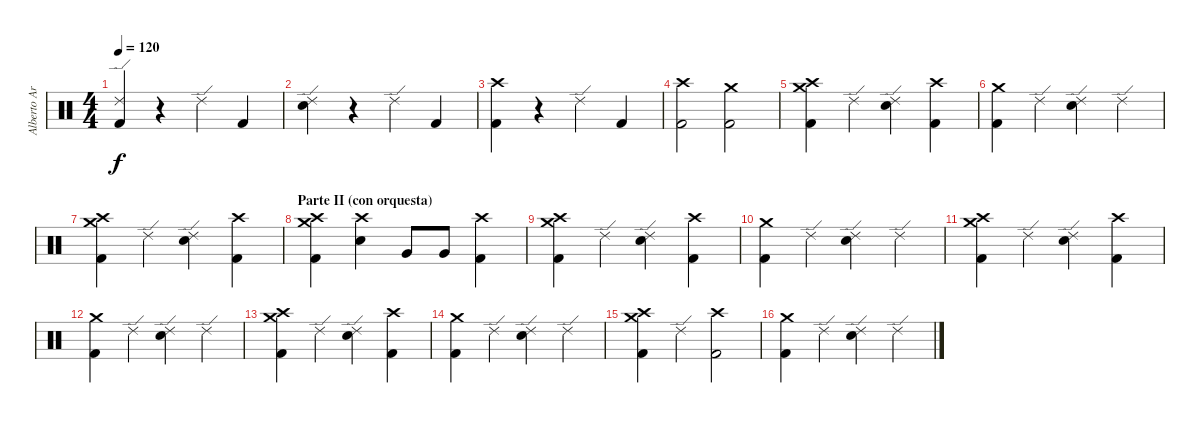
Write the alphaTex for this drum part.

\track ("Alberto Ardines (Batería)" "Alberto Ar") {instrument percussion}
\staff {score}
\articulation defaults
\ts (4 4)
\tempo 120
\clef neutral
\ks c
("Ride (edge) 2" "Kick (hit) 2").4{dy f} r.4 "Ride (edge) 2".4 "Kick (hit) 2".4 |
("Ride (edge) 2" "Electric Snare (hit)").4 r.4 "Ride (edge) 2".4 "Kick (hit) 2".4 |
("Crash high (hit)" "Kick (hit) 2").4 r.4 "Ride (edge) 2".4 "Kick (hit) 2".4 |
("Crash high (hit)" "Kick (hit) 2").2 ("Crash medium (hit)" "Kick (hit) 2").2 |
("Crash high (hit)" "Kick (hit) 2" "Crash medium (hit)").4 "Ride (edge) 2".4 ("Ride (edge) 2" "Electric Snare (hit)").4 ("Crash high (hit)" "Kick (hit) 2").4 |
("Crash medium (hit)" "Kick (hit) 2").4 "Ride (edge) 2".4 ("Ride (edge) 2" "Electric Snare (hit)").4 "Ride (edge) 2".4 |
("Crash high (hit)" "Kick (hit) 2" "Crash medium (hit)").4 "Ride (edge) 2".4 ("Ride (edge) 2" "Electric Snare (hit)").4 ("Crash high (hit)" "Kick (hit) 2").4 |
\section ("" "Parte II (con orquesta)")
("Crash high (hit)" "Kick (hit) 2" "Crash medium (hit)").4 ("Electric Snare (hit)" "Crash high (hit)").4 "Very Low Tom (hit)".8 "Very Low Tom (hit)".8 ("Crash high (hit)" "Kick (hit) 2").4 |
("Crash high (hit)" "Kick (hit) 2" "Crash medium (hit)").4 "Ride (edge) 2".4 ("Ride (edge) 2" "Electric Snare (hit)").4 ("Crash high (hit)" "Kick (hit) 2").4 |
("Crash medium (hit)" "Kick (hit) 2").4 "Ride (edge) 2".4 ("Ride (edge) 2" "Electric Snare (hit)").4 "Ride (edge) 2".4 |
("Crash high (hit)" "Kick (hit) 2" "Crash medium (hit)").4 "Ride (edge) 2".4 ("Ride (edge) 2" "Electric Snare (hit)").4 ("Crash high (hit)" "Kick (hit) 2").4 |
("Crash medium (hit)" "Kick (hit) 2").4 "Ride (edge) 2".4 ("Ride (edge) 2" "Electric Snare (hit)").4 "Ride (edge) 2".4 |
("Crash high (hit)" "Kick (hit) 2" "Crash medium (hit)").4 "Ride (edge) 2".4 ("Ride (edge) 2" "Electric Snare (hit)").4 ("Crash high (hit)" "Kick (hit) 2").4 |
("Crash medium (hit)" "Kick (hit) 2").4 "Ride (edge) 2".4 ("Ride (edge) 2" "Electric Snare (hit)").4 "Ride (edge) 2".4 |
("Crash high (hit)" "Kick (hit) 2" "Crash medium (hit)").4 "Ride (edge) 2".4 ("Crash high (hit)" "Kick (hit) 2").2 |
("Crash medium (hit)" "Kick (hit) 2").4 "Ride (edge) 2".4 ("Ride (edge) 2" "Electric Snare (hit)").4 "Ride (edge) 2".4
